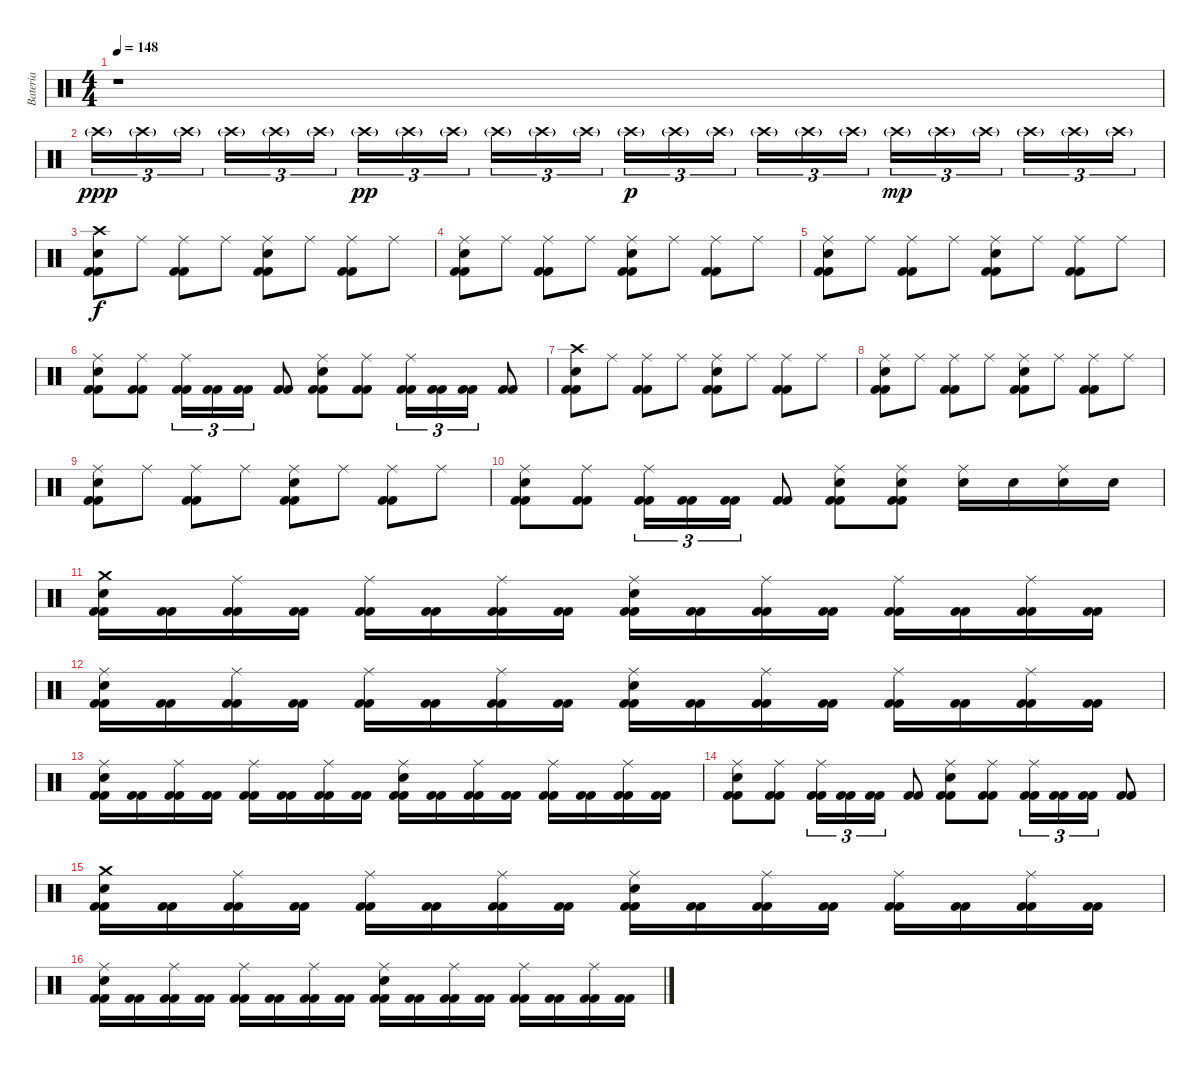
\track ("Bateria" "Bateria") {instrument percussion}
\staff {score}
\articulation defaults
\ts (4 4)
\tempo 148
\clef neutral
\ks c
r.1{dy f} |
"Crash high (hit)"{g}.16{tu (3 2) dy ppp} "Crash high (hit)"{g}.16{tu (3 2)} "Crash high (hit)"{g}.16{tu (3 2)} "Crash high (hit)"{g}.16{tu (3 2)} "Crash high (hit)"{g}.16{tu (3 2)} "Crash high (hit)"{g}.16{tu (3 2)} "Crash high (hit)"{g}.16{tu (3 2) dy pp} "Crash high (hit)"{g}.16{tu (3 2)} "Crash high (hit)"{g}.16{tu (3 2)} "Crash high (hit)"{g}.16{tu (3 2)} "Crash high (hit)"{g}.16{tu (3 2)} "Crash high (hit)"{g}.16{tu (3 2)} "Crash high (hit)"{g}.16{tu (3 2) dy p} "Crash high (hit)"{g}.16{tu (3 2)} "Crash high (hit)"{g}.16{tu (3 2)} "Crash high (hit)"{g}.16{tu (3 2)} "Crash high (hit)"{g}.16{tu (3 2)} "Crash high (hit)"{g}.16{tu (3 2)} "Crash high (hit)"{g}.16{tu (3 2) dy mp} "Crash high (hit)"{g}.16{tu (3 2)} "Crash high (hit)"{g}.16{tu (3 2)} "Crash high (hit)"{g}.16{tu (3 2)} "Crash high (hit)"{g}.16{tu (3 2)} "Crash high (hit)"{g}.16{tu (3 2)} |
("Kick (hit) 2" "Kick (hit) 2" "Snare (hit) 2" "Crash high (hit)").8{dy f} "Ride (middle)".8 ("Kick (hit) 2" "Kick (hit) 2" "Ride (middle)").8 "Ride (middle)".8 ("Kick (hit) 2" "Kick (hit) 2" "Snare (hit) 2" "Ride (middle)").8 "Ride (middle)".8 ("Kick (hit) 2" "Kick (hit) 2" "Ride (middle)").8 "Ride (middle)".8 |
("Kick (hit) 2" "Kick (hit) 2" "Snare (hit) 2" "Ride (middle)").8 "Ride (middle)".8 ("Kick (hit) 2" "Kick (hit) 2" "Ride (middle)").8 "Ride (middle)".8 ("Kick (hit) 2" "Kick (hit) 2" "Snare (hit) 2" "Ride (middle)").8 "Ride (middle)".8 ("Kick (hit) 2" "Kick (hit) 2" "Ride (middle)").8 "Ride (middle)".8 |
("Kick (hit) 2" "Kick (hit) 2" "Snare (hit) 2" "Ride (middle)").8 "Ride (middle)".8 ("Kick (hit) 2" "Kick (hit) 2" "Ride (middle)").8 "Ride (middle)".8 ("Kick (hit) 2" "Kick (hit) 2" "Snare (hit) 2" "Ride (middle)").8 "Ride (middle)".8 ("Kick (hit) 2" "Kick (hit) 2" "Ride (middle)").8 "Ride (middle)".8 |
("Kick (hit) 2" "Kick (hit) 2" "Snare (hit) 2" "Ride (middle)").8 ("Kick (hit) 2" "Kick (hit) 2" "Ride (middle)").8 ("Kick (hit) 2" "Kick (hit) 2" "Ride (middle)").16{tu (3 2)} ("Kick (hit) 2" "Kick (hit) 2").16{tu (3 2)} ("Kick (hit) 2" "Kick (hit) 2").16{tu (3 2)} ("Kick (hit) 2" "Kick (hit) 2").8 ("Kick (hit) 2" "Kick (hit) 2" "Snare (hit) 2" "Ride (middle)").8 ("Kick (hit) 2" "Kick (hit) 2" "Ride (middle)").8 ("Kick (hit) 2" "Kick (hit) 2" "Ride (middle)").16{tu (3 2)} ("Kick (hit) 2" "Kick (hit) 2").16{tu (3 2)} ("Kick (hit) 2" "Kick (hit) 2").16{tu (3 2)} ("Kick (hit) 2" "Kick (hit) 2").8 |
("Kick (hit) 2" "Kick (hit) 2" "Snare (hit) 2" "Crash high (hit)").8 "Ride (middle)".8 ("Kick (hit) 2" "Kick (hit) 2" "Ride (middle)").8 "Ride (middle)".8 ("Kick (hit) 2" "Kick (hit) 2" "Snare (hit) 2" "Ride (middle)").8 "Ride (middle)".8 ("Kick (hit) 2" "Kick (hit) 2" "Ride (middle)").8 "Ride (middle)".8 |
("Kick (hit) 2" "Kick (hit) 2" "Snare (hit) 2" "Ride (middle)").8 "Ride (middle)".8 ("Kick (hit) 2" "Kick (hit) 2" "Ride (middle)").8 "Ride (middle)".8 ("Kick (hit) 2" "Kick (hit) 2" "Snare (hit) 2" "Ride (middle)").8 "Ride (middle)".8 ("Kick (hit) 2" "Kick (hit) 2" "Ride (middle)").8 "Ride (middle)".8 |
("Kick (hit) 2" "Kick (hit) 2" "Snare (hit) 2" "Ride (middle)").8 "Ride (middle)".8 ("Kick (hit) 2" "Kick (hit) 2" "Ride (middle)").8 "Ride (middle)".8 ("Kick (hit) 2" "Kick (hit) 2" "Snare (hit) 2" "Ride (middle)").8 "Ride (middle)".8 ("Kick (hit) 2" "Kick (hit) 2" "Ride (middle)").8 "Ride (middle)".8 |
("Kick (hit) 2" "Kick (hit) 2" "Snare (hit) 2" "Ride (middle)").8 ("Kick (hit) 2" "Kick (hit) 2" "Ride (middle)").8 ("Kick (hit) 2" "Kick (hit) 2" "Ride (middle)").16{tu (3 2)} ("Kick (hit) 2" "Kick (hit) 2").16{tu (3 2)} ("Kick (hit) 2" "Kick (hit) 2").16{tu (3 2)} ("Kick (hit) 2" "Kick (hit) 2").8 ("Kick (hit) 2" "Kick (hit) 2" "Snare (hit) 2" "Ride (middle)").8 ("Kick (hit) 2" "Kick (hit) 2" "Snare (hit) 2" "Ride (middle)").8 ("Snare (hit) 2" "Ride (middle)").16 "Snare (hit) 2".16 ("Snare (hit) 2" "Ride (middle)").16 "Snare (hit) 2".16 |
("Kick (hit) 2" "Kick (hit) 2" "Snare (hit) 2" "Crash medium (hit)").16 ("Kick (hit) 2" "Kick (hit) 2").16 ("Kick (hit) 2" "Kick (hit) 2" "Ride (middle)").16 ("Kick (hit) 2" "Kick (hit) 2").16 ("Kick (hit) 2" "Kick (hit) 2" "Ride (middle)").16 ("Kick (hit) 2" "Kick (hit) 2").16 ("Kick (hit) 2" "Kick (hit) 2" "Ride (middle)").16 ("Kick (hit) 2" "Kick (hit) 2").16 ("Kick (hit) 2" "Kick (hit) 2" "Snare (hit) 2" "Ride (middle)").16 ("Kick (hit) 2" "Kick (hit) 2").16 ("Kick (hit) 2" "Kick (hit) 2" "Ride (middle)").16 ("Kick (hit) 2" "Kick (hit) 2").16 ("Kick (hit) 2" "Kick (hit) 2" "Ride (middle)").16 ("Kick (hit) 2" "Kick (hit) 2").16 ("Kick (hit) 2" "Kick (hit) 2" "Ride (middle)").16 ("Kick (hit) 2" "Kick (hit) 2").16 |
("Kick (hit) 2" "Kick (hit) 2" "Snare (hit) 2" "Ride (middle)").16 ("Kick (hit) 2" "Kick (hit) 2").16 ("Kick (hit) 2" "Kick (hit) 2" "Ride (middle)").16 ("Kick (hit) 2" "Kick (hit) 2").16 ("Kick (hit) 2" "Kick (hit) 2" "Ride (middle)").16 ("Kick (hit) 2" "Kick (hit) 2").16 ("Kick (hit) 2" "Kick (hit) 2" "Ride (middle)").16 ("Kick (hit) 2" "Kick (hit) 2").16 ("Kick (hit) 2" "Kick (hit) 2" "Snare (hit) 2" "Ride (middle)").16 ("Kick (hit) 2" "Kick (hit) 2").16 ("Kick (hit) 2" "Kick (hit) 2" "Ride (middle)").16 ("Kick (hit) 2" "Kick (hit) 2").16 ("Kick (hit) 2" "Kick (hit) 2" "Ride (middle)").16 ("Kick (hit) 2" "Kick (hit) 2").16 ("Kick (hit) 2" "Kick (hit) 2" "Ride (middle)").16 ("Kick (hit) 2" "Kick (hit) 2").16 |
("Kick (hit) 2" "Kick (hit) 2" "Snare (hit) 2" "Ride (middle)").16 ("Kick (hit) 2" "Kick (hit) 2").16 ("Kick (hit) 2" "Kick (hit) 2" "Ride (middle)").16 ("Kick (hit) 2" "Kick (hit) 2").16 ("Kick (hit) 2" "Kick (hit) 2" "Ride (middle)").16 ("Kick (hit) 2" "Kick (hit) 2").16 ("Kick (hit) 2" "Kick (hit) 2" "Ride (middle)").16 ("Kick (hit) 2" "Kick (hit) 2").16 ("Kick (hit) 2" "Kick (hit) 2" "Snare (hit) 2" "Ride (middle)").16 ("Kick (hit) 2" "Kick (hit) 2").16 ("Kick (hit) 2" "Kick (hit) 2" "Ride (middle)").16 ("Kick (hit) 2" "Kick (hit) 2").16 ("Kick (hit) 2" "Kick (hit) 2" "Ride (middle)").16 ("Kick (hit) 2" "Kick (hit) 2").16 ("Kick (hit) 2" "Kick (hit) 2" "Ride (middle)").16 ("Kick (hit) 2" "Kick (hit) 2").16 |
("Kick (hit) 2" "Kick (hit) 2" "Snare (hit) 2" "Ride (middle)").8 ("Kick (hit) 2" "Kick (hit) 2" "Ride (middle)").8 ("Kick (hit) 2" "Kick (hit) 2" "Ride (middle)").16{tu (3 2)} ("Kick (hit) 2" "Kick (hit) 2").16{tu (3 2)} ("Kick (hit) 2" "Kick (hit) 2").16{tu (3 2)} ("Kick (hit) 2" "Kick (hit) 2").8 ("Kick (hit) 2" "Kick (hit) 2" "Snare (hit) 2" "Ride (middle)").8 ("Kick (hit) 2" "Kick (hit) 2" "Ride (middle)").8 ("Kick (hit) 2" "Kick (hit) 2" "Ride (middle)").16{tu (3 2)} ("Kick (hit) 2" "Kick (hit) 2").16{tu (3 2)} ("Kick (hit) 2" "Kick (hit) 2").16{tu (3 2)} ("Kick (hit) 2" "Kick (hit) 2").8 |
("Kick (hit) 2" "Kick (hit) 2" "Snare (hit) 2" "Crash medium (hit)").16 ("Kick (hit) 2" "Kick (hit) 2").16 ("Kick (hit) 2" "Kick (hit) 2" "Ride (middle)").16 ("Kick (hit) 2" "Kick (hit) 2").16 ("Kick (hit) 2" "Kick (hit) 2" "Ride (middle)").16 ("Kick (hit) 2" "Kick (hit) 2").16 ("Kick (hit) 2" "Kick (hit) 2" "Ride (middle)").16 ("Kick (hit) 2" "Kick (hit) 2").16 ("Kick (hit) 2" "Kick (hit) 2" "Snare (hit) 2" "Ride (middle)").16 ("Kick (hit) 2" "Kick (hit) 2").16 ("Kick (hit) 2" "Kick (hit) 2" "Ride (middle)").16 ("Kick (hit) 2" "Kick (hit) 2").16 ("Kick (hit) 2" "Kick (hit) 2" "Ride (middle)").16 ("Kick (hit) 2" "Kick (hit) 2").16 ("Kick (hit) 2" "Kick (hit) 2" "Ride (middle)").16 ("Kick (hit) 2" "Kick (hit) 2").16 |
("Kick (hit) 2" "Kick (hit) 2" "Snare (hit) 2" "Ride (middle)").16 ("Kick (hit) 2" "Kick (hit) 2").16 ("Kick (hit) 2" "Kick (hit) 2" "Ride (middle)").16 ("Kick (hit) 2" "Kick (hit) 2").16 ("Kick (hit) 2" "Kick (hit) 2" "Ride (middle)").16 ("Kick (hit) 2" "Kick (hit) 2").16 ("Kick (hit) 2" "Kick (hit) 2" "Ride (middle)").16 ("Kick (hit) 2" "Kick (hit) 2").16 ("Kick (hit) 2" "Kick (hit) 2" "Snare (hit) 2" "Ride (middle)").16 ("Kick (hit) 2" "Kick (hit) 2").16 ("Kick (hit) 2" "Kick (hit) 2" "Ride (middle)").16 ("Kick (hit) 2" "Kick (hit) 2").16 ("Kick (hit) 2" "Kick (hit) 2" "Ride (middle)").16 ("Kick (hit) 2" "Kick (hit) 2").16 ("Kick (hit) 2" "Kick (hit) 2" "Ride (middle)").16 ("Kick (hit) 2" "Kick (hit) 2").16
